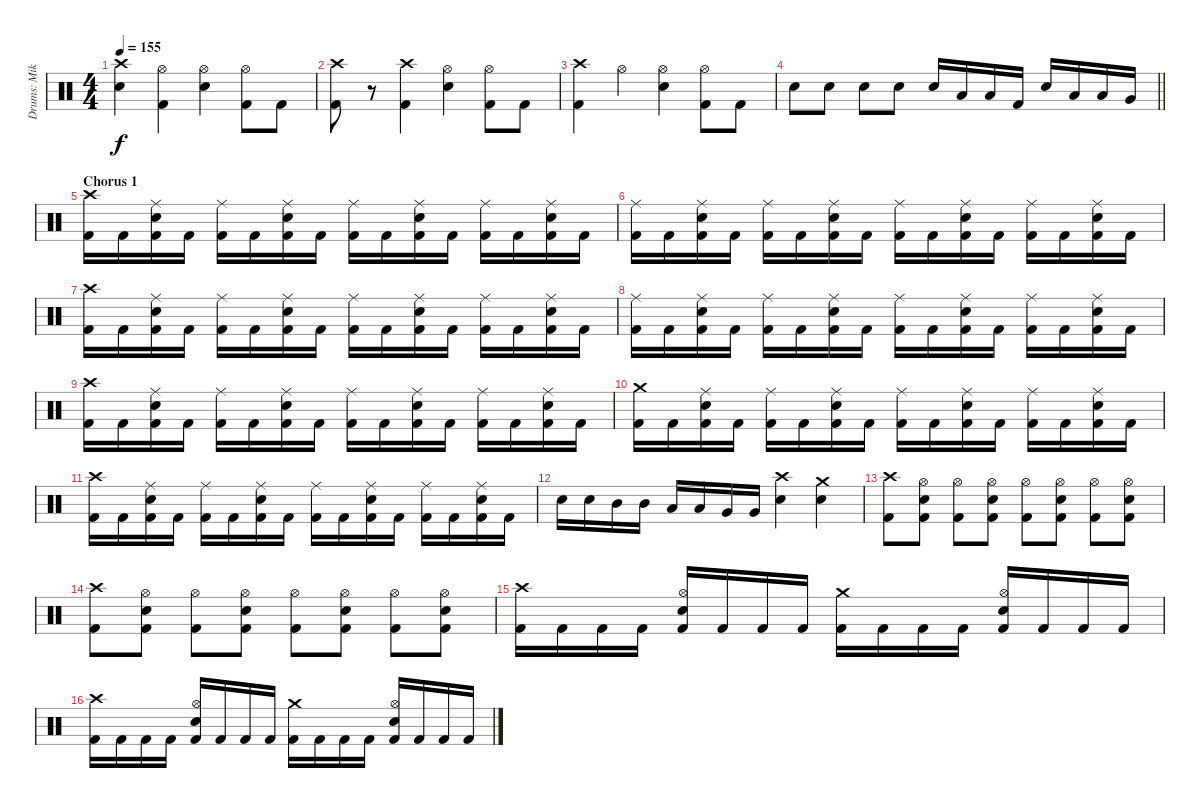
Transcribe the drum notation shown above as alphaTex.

\track ("Drums: Mikko Korsbäck" "Drums: Mik") {instrument percussion}
\staff {score}
\articulation defaults
\ts (4 4)
\tempo 155
\clef neutral
\ks aminor
("Crash high (hit)" "Electric Snare (hit)").4{dy f} ("Hi-Hat (open)" "Kick (hit) 2").4 ("Hi-Hat (open)" "Electric Snare (hit)").4 ("Hi-Hat (open)" "Kick (hit) 2").8 "Kick (hit) 2".8 |
("Crash high (hit)" "Kick (hit) 2").8 r.8 ("Crash high (hit)" "Kick (hit) 2").4 ("Hi-Hat (open)" "Electric Snare (hit)").4 ("Hi-Hat (open)" "Kick (hit) 2").8 "Kick (hit) 2".8 |
("Crash high (hit)" "Kick (hit) 2").4 "Hi-Hat (open)".4 ("Hi-Hat (open)" "Electric Snare (hit)").4 ("Hi-Hat (open)" "Kick (hit) 2").8 "Kick (hit) 2".8 |
\barLineRight lightlight "Electric Snare (hit)".8 "Electric Snare (hit)".8 "Electric Snare (hit)".8 "Electric Snare (hit)".8 "Electric Snare (hit)".16 "Low Tom (hit)".16 "Low Tom (hit)".16 "Kick (hit) 2".16 "Electric Snare (hit)".16 "Low Tom (hit)".16 "Low Tom (hit)".16 "Very Low Tom (hit)".16
|
\section ("" "Chorus 1")
("Crash high (hit)" "Kick (hit) 2").16 "Kick (hit) 2".16 ("Ride (middle)" "Electric Snare (hit)" "Kick (hit) 2").16 "Kick (hit) 2".16 ("Ride (middle)" "Kick (hit) 2").16 "Kick (hit) 2".16 ("Ride (middle)" "Electric Snare (hit)" "Kick (hit) 2").16 "Kick (hit) 2".16 ("Ride (middle)" "Kick (hit) 2").16 "Kick (hit) 2".16 ("Ride (middle)" "Electric Snare (hit)" "Kick (hit) 2").16 "Kick (hit) 2".16 ("Ride (middle)" "Kick (hit) 2").16 "Kick (hit) 2".16 ("Ride (middle)" "Electric Snare (hit)" "Kick (hit) 2").16 "Kick (hit) 2".16 |
("Ride (middle)" "Kick (hit) 2").16 "Kick (hit) 2".16 ("Ride (middle)" "Electric Snare (hit)" "Kick (hit) 2").16 "Kick (hit) 2".16 ("Ride (middle)" "Kick (hit) 2").16 "Kick (hit) 2".16 ("Ride (middle)" "Electric Snare (hit)" "Kick (hit) 2").16 "Kick (hit) 2".16 ("Ride (middle)" "Kick (hit) 2").16 "Kick (hit) 2".16 ("Ride (middle)" "Electric Snare (hit)" "Kick (hit) 2").16 "Kick (hit) 2".16 ("Ride (middle)" "Kick (hit) 2").16 "Kick (hit) 2".16 ("Ride (middle)" "Electric Snare (hit)" "Kick (hit) 2").16 "Kick (hit) 2".16 |
("Crash high (hit)" "Kick (hit) 2").16 "Kick (hit) 2".16 ("Ride (middle)" "Electric Snare (hit)" "Kick (hit) 2").16 "Kick (hit) 2".16 ("Ride (middle)" "Kick (hit) 2").16 "Kick (hit) 2".16 ("Ride (middle)" "Electric Snare (hit)" "Kick (hit) 2").16 "Kick (hit) 2".16 ("Ride (middle)" "Kick (hit) 2").16 "Kick (hit) 2".16 ("Ride (middle)" "Electric Snare (hit)" "Kick (hit) 2").16 "Kick (hit) 2".16 ("Ride (middle)" "Kick (hit) 2").16 "Kick (hit) 2".16 ("Ride (middle)" "Electric Snare (hit)" "Kick (hit) 2").16 "Kick (hit) 2".16 |
("Ride (middle)" "Kick (hit) 2").16 "Kick (hit) 2".16 ("Ride (middle)" "Electric Snare (hit)" "Kick (hit) 2").16 "Kick (hit) 2".16 ("Ride (middle)" "Kick (hit) 2").16 "Kick (hit) 2".16 ("Ride (middle)" "Electric Snare (hit)" "Kick (hit) 2").16 "Kick (hit) 2".16 ("Ride (middle)" "Kick (hit) 2").16 "Kick (hit) 2".16 ("Ride (middle)" "Electric Snare (hit)" "Kick (hit) 2").16 "Kick (hit) 2".16 ("Ride (middle)" "Kick (hit) 2").16 "Kick (hit) 2".16 ("Ride (middle)" "Electric Snare (hit)" "Kick (hit) 2").16 "Kick (hit) 2".16 |
("Crash high (hit)" "Kick (hit) 2").16 "Kick (hit) 2".16 ("Ride (middle)" "Electric Snare (hit)" "Kick (hit) 2").16 "Kick (hit) 2".16 ("Ride (middle)" "Kick (hit) 2").16 "Kick (hit) 2".16 ("Ride (middle)" "Electric Snare (hit)" "Kick (hit) 2").16 "Kick (hit) 2".16 ("Ride (middle)" "Kick (hit) 2").16 "Kick (hit) 2".16 ("Ride (middle)" "Electric Snare (hit)" "Kick (hit) 2").16 "Kick (hit) 2".16 ("Ride (middle)" "Kick (hit) 2").16 "Kick (hit) 2".16 ("Ride (middle)" "Electric Snare (hit)" "Kick (hit) 2").16 "Kick (hit) 2".16 |
("Crash medium (hit)" "Kick (hit) 2").16 "Kick (hit) 2".16 ("Ride (middle)" "Electric Snare (hit)" "Kick (hit) 2").16 "Kick (hit) 2".16 ("Ride (middle)" "Kick (hit) 2").16 "Kick (hit) 2".16 ("Ride (middle)" "Electric Snare (hit)" "Kick (hit) 2").16 "Kick (hit) 2".16 ("Ride (middle)" "Kick (hit) 2").16 "Kick (hit) 2".16 ("Ride (middle)" "Electric Snare (hit)" "Kick (hit) 2").16 "Kick (hit) 2".16 ("Ride (middle)" "Kick (hit) 2").16 "Kick (hit) 2".16 ("Ride (middle)" "Electric Snare (hit)" "Kick (hit) 2").16 "Kick (hit) 2".16 |
("Crash high (hit)" "Kick (hit) 2").16 "Kick (hit) 2".16 ("Ride (middle)" "Electric Snare (hit)" "Kick (hit) 2").16 "Kick (hit) 2".16 ("Ride (middle)" "Kick (hit) 2").16 "Kick (hit) 2".16 ("Ride (middle)" "Electric Snare (hit)" "Kick (hit) 2").16 "Kick (hit) 2".16 ("Ride (middle)" "Kick (hit) 2").16 "Kick (hit) 2".16 ("Ride (middle)" "Electric Snare (hit)" "Kick (hit) 2").16 "Kick (hit) 2".16 ("Ride (middle)" "Kick (hit) 2").16 "Kick (hit) 2".16 ("Ride (middle)" "Electric Snare (hit)" "Kick (hit) 2").16 "Kick (hit) 2".16 |
"Electric Snare (hit)".16 "Electric Snare (hit)".16 "Mid Tom (hit)".16 "Mid Tom (hit)".16 "Low Tom (hit)".16 "Low Tom (hit)".16 "Very Low Tom (hit)".16 "Very Low Tom (hit)".16 ("Crash high (hit)" "Electric Snare (hit)").4 ("Crash medium (hit)" "Electric Snare (hit)").4 |
("Crash high (hit)" "Kick (hit) 2").8 ("Hi-Hat (open)" "Electric Snare (hit)" "Kick (hit) 2").8 ("Hi-Hat (open)" "Kick (hit) 2").8 ("Hi-Hat (open)" "Electric Snare (hit)" "Kick (hit) 2").8 ("Hi-Hat (open)" "Kick (hit) 2").8 ("Hi-Hat (open)" "Electric Snare (hit)" "Kick (hit) 2").8 ("Hi-Hat (open)" "Kick (hit) 2").8 ("Hi-Hat (open)" "Electric Snare (hit)" "Kick (hit) 2").8 |
("Crash high (hit)" "Kick (hit) 2").8 ("Hi-Hat (open)" "Electric Snare (hit)" "Kick (hit) 2").8 ("Hi-Hat (open)" "Kick (hit) 2").8 ("Hi-Hat (open)" "Electric Snare (hit)" "Kick (hit) 2").8 ("Hi-Hat (open)" "Kick (hit) 2").8 ("Hi-Hat (open)" "Electric Snare (hit)" "Kick (hit) 2").8 ("Hi-Hat (open)" "Kick (hit) 2").8 ("Hi-Hat (open)" "Electric Snare (hit)" "Kick (hit) 2").8 |
("Crash high (hit)" "Kick (hit) 2").16 "Kick (hit) 2".16 "Kick (hit) 2".16 "Kick (hit) 2".16 ("Hi-Hat (open)" "Electric Snare (hit)" "Kick (hit) 2").16 "Kick (hit) 2".16 "Kick (hit) 2".16 "Kick (hit) 2".16 ("Crash medium (hit)" "Kick (hit) 2").16 "Kick (hit) 2".16 "Kick (hit) 2".16 "Kick (hit) 2".16 ("Hi-Hat (open)" "Electric Snare (hit)" "Kick (hit) 2").16 "Kick (hit) 2".16 "Kick (hit) 2".16 "Kick (hit) 2".16 |
("Crash high (hit)" "Kick (hit) 2").16 "Kick (hit) 2".16 "Kick (hit) 2".16 "Kick (hit) 2".16 ("Hi-Hat (open)" "Electric Snare (hit)" "Kick (hit) 2").16 "Kick (hit) 2".16 "Kick (hit) 2".16 "Kick (hit) 2".16 ("Crash medium (hit)" "Kick (hit) 2").16 "Kick (hit) 2".16 "Kick (hit) 2".16 "Kick (hit) 2".16 ("Hi-Hat (open)" "Electric Snare (hit)" "Kick (hit) 2").16 "Kick (hit) 2".16 "Kick (hit) 2".16 "Kick (hit) 2".16
